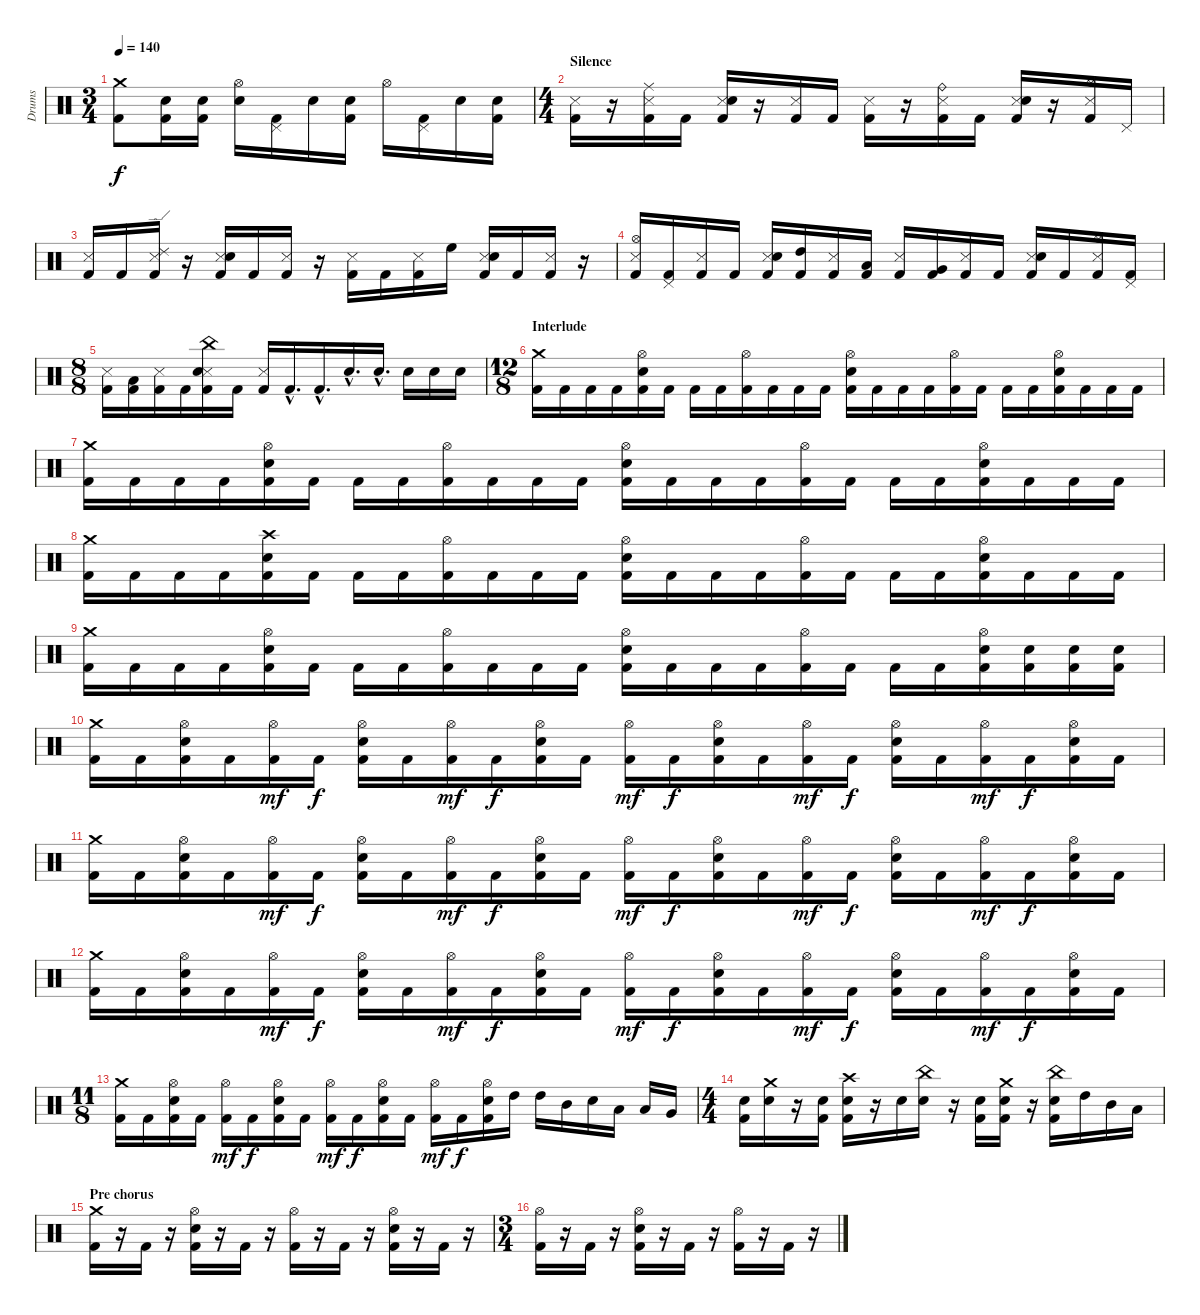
\track ("Drums" "Drums") {instrument percussion}
\staff {score}
\articulation defaults
\ts (3 4)
\tempo 140
\clef neutral
\ks c
("Crash medium (hit)" "Kick (hit) 2").8{dy f} ("Electric Snare (hit)" "Kick (hit) 2").16 ("Electric Snare (hit)" "Kick (hit) 2").16 ("Hi-Hat (open)" "Electric Snare (hit)").16 ("Pedal Hi-Hat (hit)" "Kick (hit) 2").16 "Electric Snare (hit)".16 ("Electric Snare (hit)" "Kick (hit) 2").16 "Hi-Hat (open)".16 ("Pedal Hi-Hat (hit)" "Kick (hit) 2").16 "Electric Snare (hit)".16 ("Electric Snare (hit)" "Kick (hit) 2").16 |
\ts (4 4)
\section ("" "Silence")
("Snare (side stick) 3" "Kick (hit) 2").16 r.16 ("Ride (middle)" "Snare (side stick) 3" "Kick (hit) 2").16 "Kick (hit) 2".16 ("Snare (side stick) 3" "Electric Snare (hit)" "Kick (hit) 2").16 r.16 ("Snare (side stick) 3" "Kick (hit) 2").16 "Kick (hit) 2".16 ("Snare (side stick) 3" "Kick (hit) 2").16 r.16 ("Ride (bell)" "Snare (side stick) 3" "Kick (hit) 2").16 "Kick (hit) 2".16 ("Snare (side stick) 3" "Electric Snare (hit)" "Kick (hit) 2").16 r.16 ("Hi-Hat (open)" "Snare (side stick) 3" "Kick (hit) 2").16 "Pedal Hi-Hat (hit)".16 |
("Snare (side stick) 3" "Kick (hit) 2").16 "Kick (hit) 2".16 ("Ride (edge) 2" "Snare (side stick) 3" "Kick (hit) 2").16 r.16 ("Snare (side stick) 3" "Electric Snare (hit)" "Kick (hit) 2").16 "Kick (hit) 2".16 ("Snare (side stick) 3" "Kick (hit) 2").16 r.16 ("Snare (side stick) 3" "Kick (hit) 2").16 "Kick (hit) 2".16 ("Snare (side stick) 3" "Kick (hit) 2").16 "High Floor Tom (hit)".16 ("Snare (side stick) 3" "Electric Snare (hit)" "Kick (hit) 2").16 "Kick (hit) 2".16 ("Snare (side stick) 3" "Kick (hit) 2").16 r.16 |
("Hi-Hat (open)" "Snare (side stick) 3" "Kick (hit) 2").16 ("Pedal Hi-Hat (hit)" "Kick (hit) 2").16 ("Snare (side stick) 3" "Kick (hit) 2").16 "Kick (hit) 2".16 ("Snare (side stick) 3" "Electric Snare (hit)" "Kick (hit) 2").16 ("High Tom (hit)" "Kick (hit) 2").16 ("Snare (side stick) 3" "Kick (hit) 2").16 ("Low Tom (hit)" "Kick (hit) 2").16 ("Snare (side stick) 3" "Kick (hit) 2").16 ("Very Low Tom (hit)" "Kick (hit) 2").16 ("Snare (side stick) 3" "Kick (hit) 2").16 "Kick (hit) 2".16 ("Snare (side stick) 3" "Electric Snare (hit)" "Kick (hit) 2").16 "Kick (hit) 2".16 ("Hi-Hat (open)" "Snare (side stick) 3" "Kick (hit) 2").16 ("Pedal Hi-Hat (hit)" "Kick (hit) 2").16 |
\ts (8 8)
("Snare (side stick) 3" "Kick (hit) 2").16 ("Low Floor Tom (hit)" "Kick (hit) 2").16 ("Snare (side stick) 3" "Kick (hit) 2").16 "Kick (hit) 2".16 ("China (hit)" "Snare (side stick) 3" "Electric Snare (hit)" "Kick (hit) 2").16 "Kick (hit) 2".16 ("Snare (side stick) 3" "Kick (hit) 2").16 "Kick (hit) 2"{hac}.16{d} "Kick (hit) 2"{hac}.16{d} "Electric Snare (hit)"{hac}.16{d} "Electric Snare (hit)"{hac}.16{d} "Electric Snare (hit)".16 "Electric Snare (hit)".16 "Electric Snare (hit)".16 |
\ts (12 8)
\section ("" "Interlude")
("Crash medium (hit)" "Kick (hit) 2").16 "Kick (hit) 2".16 "Kick (hit) 2".16 "Kick (hit) 2".16 ("Hi-Hat (open)" "Electric Snare (hit)" "Kick (hit) 2").16 "Kick (hit) 2".16 "Kick (hit) 2".16 "Kick (hit) 2".16 ("Hi-Hat (open)" "Kick (hit) 2").16 "Kick (hit) 2".16 "Kick (hit) 2".16 "Kick (hit) 2".16 ("Hi-Hat (open)" "Electric Snare (hit)" "Kick (hit) 2").16 "Kick (hit) 2".16 "Kick (hit) 2".16 "Kick (hit) 2".16 ("Hi-Hat (open)" "Kick (hit) 2").16 "Kick (hit) 2".16 "Kick (hit) 2".16 "Kick (hit) 2".16 ("Hi-Hat (open)" "Electric Snare (hit)" "Kick (hit) 2").16 "Kick (hit) 2".16 "Kick (hit) 2".16 "Kick (hit) 2".16 |
("Crash medium (hit)" "Kick (hit) 2").16 "Kick (hit) 2".16 "Kick (hit) 2".16 "Kick (hit) 2".16 ("Hi-Hat (open)" "Electric Snare (hit)" "Kick (hit) 2").16 "Kick (hit) 2".16 "Kick (hit) 2".16 "Kick (hit) 2".16 ("Hi-Hat (open)" "Kick (hit) 2").16 "Kick (hit) 2".16 "Kick (hit) 2".16 "Kick (hit) 2".16 ("Hi-Hat (open)" "Electric Snare (hit)" "Kick (hit) 2").16 "Kick (hit) 2".16 "Kick (hit) 2".16 "Kick (hit) 2".16 ("Hi-Hat (open)" "Kick (hit) 2").16 "Kick (hit) 2".16 "Kick (hit) 2".16 "Kick (hit) 2".16 ("Hi-Hat (open)" "Electric Snare (hit)" "Kick (hit) 2").16 "Kick (hit) 2".16 "Kick (hit) 2".16 "Kick (hit) 2".16 |
("Crash medium (hit)" "Kick (hit) 2").16 "Kick (hit) 2".16 "Kick (hit) 2".16 "Kick (hit) 2".16 ("Crash high (hit)" "Electric Snare (hit)" "Kick (hit) 2").16 "Kick (hit) 2".16 "Kick (hit) 2".16 "Kick (hit) 2".16 ("Hi-Hat (open)" "Kick (hit) 2").16 "Kick (hit) 2".16 "Kick (hit) 2".16 "Kick (hit) 2".16 ("Hi-Hat (open)" "Electric Snare (hit)" "Kick (hit) 2").16 "Kick (hit) 2".16 "Kick (hit) 2".16 "Kick (hit) 2".16 ("Hi-Hat (open)" "Kick (hit) 2").16 "Kick (hit) 2".16 "Kick (hit) 2".16 "Kick (hit) 2".16 ("Hi-Hat (open)" "Electric Snare (hit)" "Kick (hit) 2").16 "Kick (hit) 2".16 "Kick (hit) 2".16 "Kick (hit) 2".16 |
("Crash medium (hit)" "Kick (hit) 2").16 "Kick (hit) 2".16 "Kick (hit) 2".16 "Kick (hit) 2".16 ("Hi-Hat (open)" "Electric Snare (hit)" "Kick (hit) 2").16 "Kick (hit) 2".16 "Kick (hit) 2".16 "Kick (hit) 2".16 ("Hi-Hat (open)" "Kick (hit) 2").16 "Kick (hit) 2".16 "Kick (hit) 2".16 "Kick (hit) 2".16 ("Hi-Hat (open)" "Electric Snare (hit)" "Kick (hit) 2").16 "Kick (hit) 2".16 "Kick (hit) 2".16 "Kick (hit) 2".16 ("Hi-Hat (open)" "Kick (hit) 2").16 "Kick (hit) 2".16 "Kick (hit) 2".16 "Kick (hit) 2".16 ("Hi-Hat (open)" "Electric Snare (hit)" "Kick (hit) 2").16 ("Electric Snare (hit)" "Kick (hit) 2").16 ("Electric Snare (hit)" "Kick (hit) 2").16 ("Electric Snare (hit)" "Kick (hit) 2").16 |
("Crash medium (hit)" "Kick (hit) 2").16 "Kick (hit) 2".16 ("Hi-Hat (open)" "Electric Snare (hit)" "Kick (hit) 2").16 "Kick (hit) 2".16 ("Hi-Hat (open)" "Kick (hit) 2").16{dy mf} "Kick (hit) 2".16{dy f} ("Hi-Hat (open)" "Electric Snare (hit)" "Kick (hit) 2").16 "Kick (hit) 2".16 ("Hi-Hat (open)" "Kick (hit) 2").16{dy mf} "Kick (hit) 2".16{dy f} ("Hi-Hat (open)" "Electric Snare (hit)" "Kick (hit) 2").16 "Kick (hit) 2".16 ("Hi-Hat (open)" "Kick (hit) 2").16{dy mf} "Kick (hit) 2".16{dy f} ("Hi-Hat (open)" "Electric Snare (hit)" "Kick (hit) 2").16 "Kick (hit) 2".16 ("Hi-Hat (open)" "Kick (hit) 2").16{dy mf} "Kick (hit) 2".16{dy f} ("Hi-Hat (open)" "Electric Snare (hit)" "Kick (hit) 2").16 "Kick (hit) 2".16 ("Hi-Hat (open)" "Kick (hit) 2").16{dy mf} "Kick (hit) 2".16{dy f} ("Hi-Hat (open)" "Electric Snare (hit)" "Kick (hit) 2").16 "Kick (hit) 2".16 |
("Crash medium (hit)" "Kick (hit) 2").16 "Kick (hit) 2".16 ("Hi-Hat (open)" "Electric Snare (hit)" "Kick (hit) 2").16 "Kick (hit) 2".16 ("Hi-Hat (open)" "Kick (hit) 2").16{dy mf} "Kick (hit) 2".16{dy f} ("Hi-Hat (open)" "Electric Snare (hit)" "Kick (hit) 2").16 "Kick (hit) 2".16 ("Hi-Hat (open)" "Kick (hit) 2").16{dy mf} "Kick (hit) 2".16{dy f} ("Hi-Hat (open)" "Electric Snare (hit)" "Kick (hit) 2").16 "Kick (hit) 2".16 ("Hi-Hat (open)" "Kick (hit) 2").16{dy mf} "Kick (hit) 2".16{dy f} ("Hi-Hat (open)" "Electric Snare (hit)" "Kick (hit) 2").16 "Kick (hit) 2".16 ("Hi-Hat (open)" "Kick (hit) 2").16{dy mf} "Kick (hit) 2".16{dy f} ("Hi-Hat (open)" "Electric Snare (hit)" "Kick (hit) 2").16 "Kick (hit) 2".16 ("Hi-Hat (open)" "Kick (hit) 2").16{dy mf} "Kick (hit) 2".16{dy f} ("Hi-Hat (open)" "Electric Snare (hit)" "Kick (hit) 2").16 "Kick (hit) 2".16 |
("Crash medium (hit)" "Kick (hit) 2").16 "Kick (hit) 2".16 ("Hi-Hat (open)" "Electric Snare (hit)" "Kick (hit) 2").16 "Kick (hit) 2".16 ("Hi-Hat (open)" "Kick (hit) 2").16{dy mf} "Kick (hit) 2".16{dy f} ("Hi-Hat (open)" "Electric Snare (hit)" "Kick (hit) 2").16 "Kick (hit) 2".16 ("Hi-Hat (open)" "Kick (hit) 2").16{dy mf} "Kick (hit) 2".16{dy f} ("Hi-Hat (open)" "Electric Snare (hit)" "Kick (hit) 2").16 "Kick (hit) 2".16 ("Hi-Hat (open)" "Kick (hit) 2").16{dy mf} "Kick (hit) 2".16{dy f} ("Hi-Hat (open)" "Electric Snare (hit)" "Kick (hit) 2").16 "Kick (hit) 2".16 ("Hi-Hat (open)" "Kick (hit) 2").16{dy mf} "Kick (hit) 2".16{dy f} ("Hi-Hat (open)" "Electric Snare (hit)" "Kick (hit) 2").16 "Kick (hit) 2".16 ("Hi-Hat (open)" "Kick (hit) 2").16{dy mf} "Kick (hit) 2".16{dy f} ("Hi-Hat (open)" "Electric Snare (hit)" "Kick (hit) 2").16 "Kick (hit) 2".16 |
\ts (11 8)
("Crash medium (hit)" "Kick (hit) 2").16 "Kick (hit) 2".16 ("Hi-Hat (open)" "Electric Snare (hit)" "Kick (hit) 2").16 "Kick (hit) 2".16 ("Hi-Hat (open)" "Kick (hit) 2").16{dy mf} "Kick (hit) 2".16{dy f} ("Hi-Hat (open)" "Electric Snare (hit)" "Kick (hit) 2").16 "Kick (hit) 2".16 ("Hi-Hat (open)" "Kick (hit) 2").16{dy mf} "Kick (hit) 2".16{dy f} ("Hi-Hat (open)" "Electric Snare (hit)" "Kick (hit) 2").16 "Kick (hit) 2".16 ("Hi-Hat (open)" "Kick (hit) 2").16{dy mf} "Kick (hit) 2".16{dy f} ("Hi-Hat (open)" "Electric Snare (hit)" "Kick (hit) 2").16 "High Tom (hit)".16 "High Tom (hit)".16 "Mid Tom (hit)".16 "Electric Snare (hit)".16 "Low Tom (hit)".16 "Low Tom (hit)".16 "Very Low Tom (hit)".16 |
\ts (4 4)
("Electric Snare (hit)" "Kick (hit) 2").16 ("Crash medium (hit)" "Electric Snare (hit)").16 r.16 ("Electric Snare (hit)" "Kick (hit) 2").16 ("Crash high (hit)" "Electric Snare (hit)" "Kick (hit) 2").16 r.16 "Electric Snare (hit)".16 ("China (hit)" "Electric Snare (hit)").16 r.16 ("Electric Snare (hit)" "Kick (hit) 2").16 ("Crash medium (hit)" "Electric Snare (hit)" "Kick (hit) 2").16 r.16 ("China (hit)" "Electric Snare (hit)" "Kick (hit) 2").16 "High Tom (hit)".16 "Mid Tom (hit)".16 "Low Tom (hit)".16 |
\section ("" "Pre chorus")
("Crash medium (hit)" "Kick (hit) 2").16 r.16 "Kick (hit) 2".16 r.16 ("Hi-Hat (open)" "Electric Snare (hit)" "Kick (hit) 2").16 r.16 "Kick (hit) 2".16 r.16 ("Hi-Hat (open)" "Kick (hit) 2").16 r.16 "Kick (hit) 2".16 r.16 ("Hi-Hat (open)" "Electric Snare (hit)" "Kick (hit) 2").16 r.16 "Kick (hit) 2".16 r.16 |
\ts (3 4)
("Hi-Hat (open)" "Kick (hit) 2").16 r.16 "Kick (hit) 2".16 r.16 ("Hi-Hat (open)" "Electric Snare (hit)" "Kick (hit) 2").16 r.16 "Kick (hit) 2".16 r.16 ("Hi-Hat (open)" "Kick (hit) 2").16 r.16 "Kick (hit) 2".16 r.16
